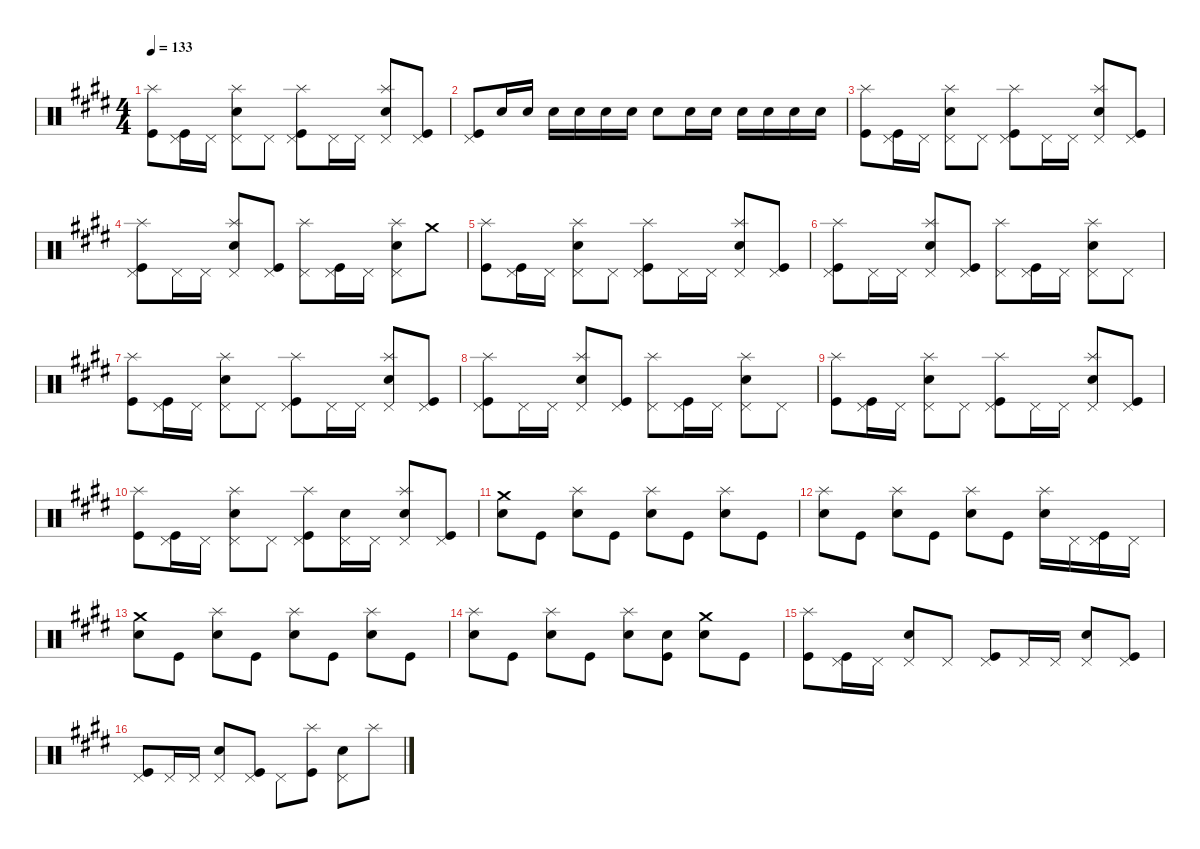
\defaultSystemsLayout 4
\hideDynamics
\bracketExtendMode nobrackets
\singleTrackTrackNamePolicy hidden
\multiTrackTrackNamePolicy hidden
\firstSystemTrackNameMode fullname
\firstSystemTrackNameOrientation horizontal
\otherSystemsTrackNameOrientation horizontal
\track ("RVP" "drm.") {instrument percussion}
\staff {score}
\articulation defaults
\ts (4 4)
\tempo 133
\clef neutral
\ks e
("Splash (hit)"{acc forcenatural} "Kick (hit)"{acc forcenatural}).8{dy f beam Down} ("Pedal Hi-Hat (hit)"{acc forcenatural} "Kick (hit)"{acc forcenatural}).16{beam Down} "Pedal Hi-Hat (hit)"{acc forcenatural}.16{beam Down} ("Snare (hit) 2"{acc forcenatural} "Pedal Hi-Hat (hit)"{acc forcenatural} "Splash (hit)"{acc forcenatural}).8{dy fff beam Down} "Pedal Hi-Hat (hit)"{acc forcenatural}.8{dy f beam Down} ("Pedal Hi-Hat (hit)"{acc forcenatural} "Splash (hit)"{acc forcenatural} "Kick (hit)"{acc forcenatural}).8{beam Down} "Pedal Hi-Hat (hit)"{acc forcenatural}.16{beam Down} "Pedal Hi-Hat (hit)"{acc forcenatural}.16{beam Down} ("Snare (hit) 2"{acc forcenatural} "Pedal Hi-Hat (hit)"{acc forcenatural} "Splash (hit)"{acc forcenatural}).8{dy fff beam Up} ("Pedal Hi-Hat (hit)"{acc forcenatural} "Kick (hit)"{acc forcenatural}).8{dy f beam Up} |
("Pedal Hi-Hat (hit)"{acc forcenatural} "Kick (hit)"{acc forcenatural}).8{beam Up} "Snare (hit) 2"{acc forcenatural}.16{dy fff beam Up} "Snare (hit) 2"{acc forcenatural}.16{beam Up} "Snare (hit) 2"{acc forcenatural}.16{beam Down} "Snare (hit) 2"{acc forcenatural}.16{beam Down} "Snare (hit) 2"{acc forcenatural}.16{beam Down} "Snare (hit) 2"{acc forcenatural}.16{beam Down} "Snare (hit) 2"{acc forcenatural}.8{beam Down} "Snare (hit) 2"{acc forcenatural}.16{beam Down} "Snare (hit) 2"{acc forcenatural}.16{beam Down} "Snare (hit) 2"{acc forcenatural}.16{beam Down} "Snare (hit) 2"{acc forcenatural}.16{beam Down} "Snare (hit) 2"{acc forcenatural}.16{beam Down} "Snare (hit) 2"{acc forcenatural}.16{beam Down} |
("Splash (hit)"{acc forcenatural} "Kick (hit)"{acc forcenatural}).8{dy f beam Down} ("Pedal Hi-Hat (hit)"{acc forcenatural} "Kick (hit)"{acc forcenatural}).16{beam Down} "Pedal Hi-Hat (hit)"{acc forcenatural}.16{beam Down} ("Snare (hit) 2"{acc forcenatural} "Pedal Hi-Hat (hit)"{acc forcenatural} "Splash (hit)"{acc forcenatural}).8{dy fff beam Down} "Pedal Hi-Hat (hit)"{acc forcenatural}.8{dy f beam Down} ("Pedal Hi-Hat (hit)"{acc forcenatural} "Splash (hit)"{acc forcenatural} "Kick (hit)"{acc forcenatural}).8{beam Down} "Pedal Hi-Hat (hit)"{acc forcenatural}.16{beam Down} "Pedal Hi-Hat (hit)"{acc forcenatural}.16{beam Down} ("Snare (hit) 2"{acc forcenatural} "Pedal Hi-Hat (hit)"{acc forcenatural} "Splash (hit)"{acc forcenatural}).8{dy fff beam Up} ("Pedal Hi-Hat (hit)"{acc forcenatural} "Kick (hit)"{acc forcenatural}).8{dy f beam Up} |
("Pedal Hi-Hat (hit)"{acc forcenatural} "Splash (hit)"{acc forcenatural} "Kick (hit)"{acc forcenatural}).8{beam Down} "Pedal Hi-Hat (hit)"{acc forcenatural}.16{beam Down} "Pedal Hi-Hat (hit)"{acc forcenatural}.16{beam Down} ("Snare (hit) 2"{acc forcenatural} "Pedal Hi-Hat (hit)"{acc forcenatural} "Splash (hit)"{acc forcenatural}).8{dy fff beam Up} ("Pedal Hi-Hat (hit)"{acc forcenatural} "Kick (hit)"{acc forcenatural}).8{dy f beam Up} ("Pedal Hi-Hat (hit)"{acc forcenatural} "Splash (hit)"{acc forcenatural}).8{beam Down} ("Pedal Hi-Hat (hit)"{acc forcenatural} "Kick (hit)"{acc forcenatural}).16{beam Down} "Pedal Hi-Hat (hit)"{acc forcenatural}.16{beam Down} ("Snare (hit) 2"{acc forcenatural} "Pedal Hi-Hat (hit)"{acc forcenatural} "Splash (hit)"{acc forcenatural}).8{dy fff beam Down} "Crash medium (hit)"{acc forcenatural}.8{dy f beam Down} |
("Splash (hit)"{acc forcenatural} "Kick (hit)"{acc forcenatural}).8{beam Down} ("Pedal Hi-Hat (hit)"{acc forcenatural} "Kick (hit)"{acc forcenatural}).16{beam Down} "Pedal Hi-Hat (hit)"{acc forcenatural}.16{beam Down} ("Snare (hit) 2"{acc forcenatural} "Pedal Hi-Hat (hit)"{acc forcenatural} "Splash (hit)"{acc forcenatural}).8{dy fff beam Down} "Pedal Hi-Hat (hit)"{acc forcenatural}.8{dy f beam Down} ("Pedal Hi-Hat (hit)"{acc forcenatural} "Splash (hit)"{acc forcenatural} "Kick (hit)"{acc forcenatural}).8{beam Down} "Pedal Hi-Hat (hit)"{acc forcenatural}.16{beam Down} "Pedal Hi-Hat (hit)"{acc forcenatural}.16{beam Down} ("Snare (hit) 2"{acc forcenatural} "Pedal Hi-Hat (hit)"{acc forcenatural} "Splash (hit)"{acc forcenatural}).8{dy fff beam Up} ("Pedal Hi-Hat (hit)"{acc forcenatural} "Kick (hit)"{acc forcenatural}).8{dy f beam Up} |
("Pedal Hi-Hat (hit)"{acc forcenatural} "Splash (hit)"{acc forcenatural} "Kick (hit)"{acc forcenatural}).8{beam Down} "Pedal Hi-Hat (hit)"{acc forcenatural}.16{beam Down} "Pedal Hi-Hat (hit)"{acc forcenatural}.16{beam Down} ("Snare (hit) 2"{acc forcenatural} "Pedal Hi-Hat (hit)"{acc forcenatural} "Splash (hit)"{acc forcenatural}).8{dy fff beam Up} ("Pedal Hi-Hat (hit)"{acc forcenatural} "Kick (hit)"{acc forcenatural}).8{dy f beam Up} ("Pedal Hi-Hat (hit)"{acc forcenatural} "Splash (hit)"{acc forcenatural}).8{beam Down} ("Pedal Hi-Hat (hit)"{acc forcenatural} "Kick (hit)"{acc forcenatural}).16{beam Down} "Pedal Hi-Hat (hit)"{acc forcenatural}.16{beam Down} ("Snare (hit) 2"{acc forcenatural} "Pedal Hi-Hat (hit)"{acc forcenatural} "Splash (hit)"{acc forcenatural}).8{dy fff beam Down} "Pedal Hi-Hat (hit)"{acc forcenatural}.8{dy f beam Down} |
("Splash (hit)"{acc forcenatural} "Kick (hit)"{acc forcenatural}).8{beam Down} ("Pedal Hi-Hat (hit)"{acc forcenatural} "Kick (hit)"{acc forcenatural}).16{beam Down} "Pedal Hi-Hat (hit)"{acc forcenatural}.16{beam Down} ("Snare (hit) 2"{acc forcenatural} "Pedal Hi-Hat (hit)"{acc forcenatural} "Splash (hit)"{acc forcenatural}).8{dy fff beam Down} "Pedal Hi-Hat (hit)"{acc forcenatural}.8{dy f beam Down} ("Pedal Hi-Hat (hit)"{acc forcenatural} "Splash (hit)"{acc forcenatural} "Kick (hit)"{acc forcenatural}).8{beam Down} "Pedal Hi-Hat (hit)"{acc forcenatural}.16{beam Down} "Pedal Hi-Hat (hit)"{acc forcenatural}.16{beam Down} ("Snare (hit) 2"{acc forcenatural} "Pedal Hi-Hat (hit)"{acc forcenatural} "Splash (hit)"{acc forcenatural}).8{dy fff beam Up} ("Pedal Hi-Hat (hit)"{acc forcenatural} "Kick (hit)"{acc forcenatural}).8{dy f beam Up} |
("Pedal Hi-Hat (hit)"{acc forcenatural} "Splash (hit)"{acc forcenatural} "Kick (hit)"{acc forcenatural}).8{beam Down} "Pedal Hi-Hat (hit)"{acc forcenatural}.16{beam Down} "Pedal Hi-Hat (hit)"{acc forcenatural}.16{beam Down} ("Snare (hit) 2"{acc forcenatural} "Pedal Hi-Hat (hit)"{acc forcenatural} "Splash (hit)"{acc forcenatural}).8{dy fff beam Up} ("Pedal Hi-Hat (hit)"{acc forcenatural} "Kick (hit)"{acc forcenatural}).8{dy f beam Up} ("Pedal Hi-Hat (hit)"{acc forcenatural} "Splash (hit)"{acc forcenatural}).8{beam Down} ("Pedal Hi-Hat (hit)"{acc forcenatural} "Kick (hit)"{acc forcenatural}).16{beam Down} "Pedal Hi-Hat (hit)"{acc forcenatural}.16{beam Down} ("Snare (hit) 2"{acc forcenatural} "Pedal Hi-Hat (hit)"{acc forcenatural} "Splash (hit)"{acc forcenatural}).8{dy fff beam Down} "Pedal Hi-Hat (hit)"{acc forcenatural}.8{dy f beam Down} |
("Splash (hit)"{acc forcenatural} "Kick (hit)"{acc forcenatural}).8{beam Down} ("Pedal Hi-Hat (hit)"{acc forcenatural} "Kick (hit)"{acc forcenatural}).16{beam Down} "Pedal Hi-Hat (hit)"{acc forcenatural}.16{beam Down} ("Snare (hit) 2"{acc forcenatural} "Pedal Hi-Hat (hit)"{acc forcenatural} "Splash (hit)"{acc forcenatural}).8{dy fff beam Down} "Pedal Hi-Hat (hit)"{acc forcenatural}.8{dy f beam Down} ("Pedal Hi-Hat (hit)"{acc forcenatural} "Splash (hit)"{acc forcenatural} "Kick (hit)"{acc forcenatural}).8{beam Down} "Pedal Hi-Hat (hit)"{acc forcenatural}.16{beam Down} "Pedal Hi-Hat (hit)"{acc forcenatural}.16{beam Down} ("Snare (hit) 2"{acc forcenatural} "Pedal Hi-Hat (hit)"{acc forcenatural} "Splash (hit)"{acc forcenatural}).8{dy fff beam Up} ("Pedal Hi-Hat (hit)"{acc forcenatural} "Kick (hit)"{acc forcenatural}).8{dy f beam Up} |
("Splash (hit)"{acc forcenatural} "Kick (hit)"{acc forcenatural}).8{beam Down} ("Pedal Hi-Hat (hit)"{acc forcenatural} "Kick (hit)"{acc forcenatural}).16{beam Down} "Pedal Hi-Hat (hit)"{acc forcenatural}.16{beam Down} ("Snare (hit) 2"{acc forcenatural} "Pedal Hi-Hat (hit)"{acc forcenatural} "Splash (hit)"{acc forcenatural}).8{dy fff beam Down} "Pedal Hi-Hat (hit)"{acc forcenatural}.8{dy f beam Down} ("Pedal Hi-Hat (hit)"{acc forcenatural} "Splash (hit)"{acc forcenatural} "Kick (hit)"{acc forcenatural}).8{beam Down} ("Snare (hit) 2"{acc forcenatural} "Pedal Hi-Hat (hit)"{acc forcenatural}).16{dy ff beam Down} "Pedal Hi-Hat (hit)"{acc forcenatural}.16{dy f beam Down} ("Snare (hit) 2"{acc forcenatural} "Pedal Hi-Hat (hit)"{acc forcenatural} "Splash (hit)"{acc forcenatural}).8{dy fff beam Up} ("Pedal Hi-Hat (hit)"{acc forcenatural} "Kick (hit)"{acc forcenatural}).8{dy f beam Up} |
("Snare (hit) 2"{acc forcenatural} "Crash medium (hit)"{acc forcenatural}).8{dy fff beam Down} "Kick (hit)"{acc forcenatural}.8{beam Down} ("Snare (hit) 2"{acc forcenatural} "Splash (hit)"{acc forcenatural}).8{beam Down} "Kick (hit)"{acc forcenatural}.8{beam Down} ("Snare (hit) 2"{acc forcenatural} "Splash (hit)"{acc forcenatural}).8{beam Down} "Kick (hit)"{acc forcenatural}.8{beam Down} ("Snare (hit) 2"{acc forcenatural} "Splash (hit)"{acc forcenatural}).8{beam Down} "Kick (hit)"{acc forcenatural}.8{beam Down} |
("Snare (hit) 2"{acc forcenatural} "Splash (hit)"{acc forcenatural}).8{beam Down} "Kick (hit)"{acc forcenatural}.8{beam Down} ("Snare (hit) 2"{acc forcenatural} "Splash (hit)"{acc forcenatural}).8{beam Down} "Kick (hit)"{acc forcenatural}.8{beam Down} ("Snare (hit) 2"{acc forcenatural} "Splash (hit)"{acc forcenatural}).8{beam Down} "Kick (hit)"{acc forcenatural}.8{beam Down} ("Snare (hit) 2"{acc forcenatural} "Splash (hit)"{acc forcenatural}).16{beam Down} "Pedal Hi-Hat (hit)"{acc forcenatural}.16{beam Down} ("Pedal Hi-Hat (hit)"{acc forcenatural} "Kick (hit)"{acc forcenatural}).16{beam Down} "Pedal Hi-Hat (hit)"{acc forcenatural}.16{beam Down} |
("Snare (hit) 2"{acc forcenatural} "Crash medium (hit)"{acc forcenatural}).8{beam Down} "Kick (hit)"{acc forcenatural}.8{beam Down} ("Snare (hit) 2"{acc forcenatural} "Splash (hit)"{acc forcenatural}).8{beam Down} "Kick (hit)"{acc forcenatural}.8{beam Down} ("Snare (hit) 2"{acc forcenatural} "Splash (hit)"{acc forcenatural}).8{beam Down} "Kick (hit)"{acc forcenatural}.8{beam Down} ("Snare (hit) 2"{acc forcenatural} "Splash (hit)"{acc forcenatural}).8{beam Down} "Kick (hit)"{acc forcenatural}.8{beam Down} |
("Snare (hit) 2"{acc forcenatural} "Splash (hit)"{acc forcenatural}).8{beam Down} "Kick (hit)"{acc forcenatural}.8{beam Down} ("Snare (hit) 2"{acc forcenatural} "Splash (hit)"{acc forcenatural}).8{beam Down} "Kick (hit)"{acc forcenatural}.8{beam Down} ("Snare (hit) 2"{acc forcenatural} "Splash (hit)"{acc forcenatural}).8{beam Down} ("Snare (hit) 2"{acc forcenatural} "Kick (hit)"{acc forcenatural}).8{beam Down} ("Snare (hit) 2"{acc forcenatural} "Crash medium (hit)"{acc forcenatural}).8{beam Down} "Kick (hit)"{acc forcenatural}.8{beam Down} |
("Splash (hit)"{acc forcenatural} "Kick (hit)"{acc forcenatural}).8{dy f beam Down} ("Pedal Hi-Hat (hit)"{acc forcenatural} "Kick (hit)"{acc forcenatural}).16{beam Down} "Pedal Hi-Hat (hit)"{acc forcenatural}.16{beam Down} ("Snare (hit) 2"{acc forcenatural} "Pedal Hi-Hat (hit)"{acc forcenatural}).8{dy fff beam Up} "Pedal Hi-Hat (hit)"{acc forcenatural}.8{dy f beam Up} ("Pedal Hi-Hat (hit)"{acc forcenatural} "Kick (hit)"{acc forcenatural}).8{beam Up} "Pedal Hi-Hat (hit)"{acc forcenatural}.16{beam Up} "Pedal Hi-Hat (hit)"{acc forcenatural}.16{beam Up} ("Snare (hit) 2"{acc forcenatural} "Pedal Hi-Hat (hit)"{acc forcenatural}).8{dy fff beam Up} ("Pedal Hi-Hat (hit)"{acc forcenatural} "Kick (hit)"{acc forcenatural}).8{dy f beam Up} |
("Pedal Hi-Hat (hit)"{acc forcenatural} "Kick (hit)"{acc forcenatural}).8{beam Up} "Pedal Hi-Hat (hit)"{acc forcenatural}.16{beam Up} "Pedal Hi-Hat (hit)"{acc forcenatural}.16{beam Up} ("Snare (hit) 2"{acc forcenatural} "Pedal Hi-Hat (hit)"{acc forcenatural}).8{dy fff beam Up} ("Pedal Hi-Hat (hit)"{acc forcenatural} "Kick (hit)"{acc forcenatural}).8{dy f beam Up} "Pedal Hi-Hat (hit)"{acc forcenatural}.8{beam Down} ("Splash (hit)"{acc forcenatural} "Kick (hit)"{acc forcenatural}).8{beam Down} ("Snare (hit) 2"{acc forcenatural} "Pedal Hi-Hat (hit)"{acc forcenatural}).8{dy fff beam Down} "Splash (hit)"{acc forcenatural}.8{dy f beam Down}
